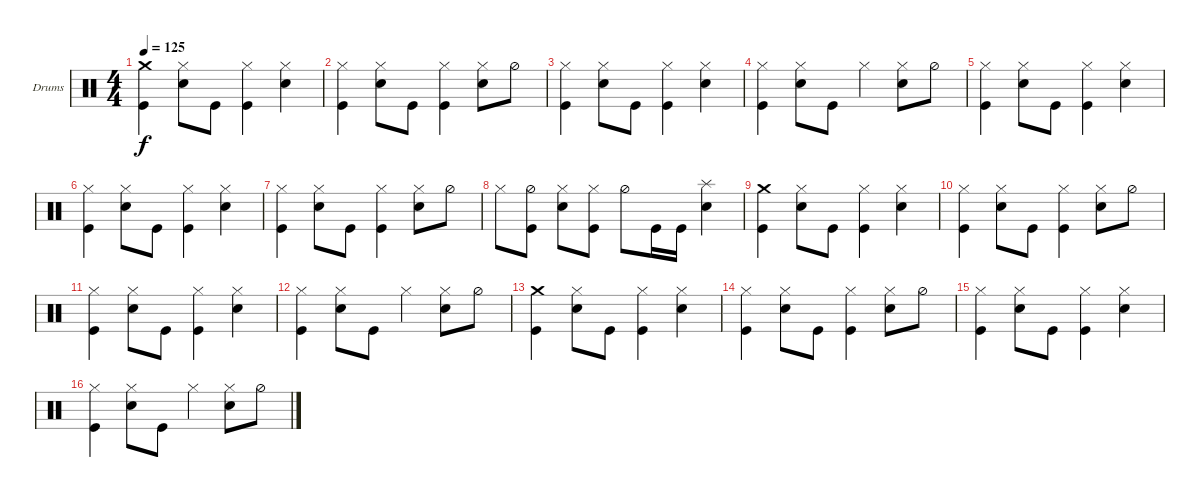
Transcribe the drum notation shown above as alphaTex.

\bracketExtendMode groupsimilarinstruments
\firstSystemTrackNameOrientation horizontal
\otherSystemsTrackNameOrientation horizontal
\track ("Drumkit" "Drums") {instrument percussion}
\staff {score}
\articulation defaults
\ts (4 4)
\tempo 125
\clef neutral
\ks c
("Kick (hit)" "Crash medium (hit)").4{dy f} ("Snare (hit) 2" "Hi-Hat (closed)").8 "Kick (hit)".8 ("Hi-Hat (closed)" "Kick (hit)").4 ("Hi-Hat (closed)" "Snare (hit) 2").4 |
("Kick (hit)" "Hi-Hat (closed)").4 ("Snare (hit) 2" "Hi-Hat (closed)").8 "Kick (hit)".8 ("Hi-Hat (closed)" "Kick (hit)").4 ("Hi-Hat (closed)" "Snare (hit) 2").8 "Hi-Hat (half)".8 |
("Kick (hit)" "Hi-Hat (closed)").4 ("Snare (hit) 2" "Hi-Hat (closed)").8 "Kick (hit)".8 ("Hi-Hat (closed)" "Kick (hit)").4 ("Hi-Hat (closed)" "Snare (hit) 2").4 |
("Kick (hit)" "Hi-Hat (closed)").4 ("Snare (hit) 2" "Hi-Hat (closed)").8 "Kick (hit)".8 "Hi-Hat (closed)".4 ("Hi-Hat (closed)" "Snare (hit) 2").8 "Hi-Hat (half)".8 |
("Kick (hit)" "Hi-Hat (closed)").4 ("Snare (hit) 2" "Hi-Hat (closed)").8 "Kick (hit)".8 ("Hi-Hat (closed)" "Kick (hit)").4 ("Hi-Hat (closed)" "Snare (hit) 2").4 |
("Kick (hit)" "Hi-Hat (closed)").4 ("Snare (hit) 2" "Hi-Hat (closed)").8 "Kick (hit)".8 ("Hi-Hat (closed)" "Kick (hit)").4 ("Hi-Hat (closed)" "Snare (hit) 2").4 |
("Kick (hit)" "Hi-Hat (closed)").4 ("Snare (hit) 2" "Hi-Hat (closed)").8 "Kick (hit)".8 ("Hi-Hat (closed)" "Kick (hit)").4 ("Hi-Hat (closed)" "Snare (hit) 2").8 "Hi-Hat (half)".8 |
"Hi-Hat (closed)".8 ("Hi-Hat (half)" "Kick (hit)").8 ("Hi-Hat (closed)" "Snare (hit) 2").8 ("Hi-Hat (closed)" "Kick (hit)").8 "Hi-Hat (half)".8 "Kick (hit)".16 "Kick (hit)".16 ("Snare (hit) 2" "Splash (hit)").4 |
("Kick (hit)" "Crash medium (hit)").4 ("Snare (hit) 2" "Hi-Hat (closed)").8 "Kick (hit)".8 ("Hi-Hat (closed)" "Kick (hit)").4 ("Hi-Hat (closed)" "Snare (hit) 2").4 |
("Kick (hit)" "Hi-Hat (closed)").4 ("Snare (hit) 2" "Hi-Hat (closed)").8 "Kick (hit)".8 ("Hi-Hat (closed)" "Kick (hit)").4 ("Hi-Hat (closed)" "Snare (hit) 2").8 "Hi-Hat (half)".8 |
("Kick (hit)" "Hi-Hat (closed)").4 ("Snare (hit) 2" "Hi-Hat (closed)").8 "Kick (hit)".8 ("Hi-Hat (closed)" "Kick (hit)").4 ("Hi-Hat (closed)" "Snare (hit) 2").4 |
("Kick (hit)" "Hi-Hat (closed)").4 ("Snare (hit) 2" "Hi-Hat (closed)").8 "Kick (hit)".8 "Hi-Hat (closed)".4 ("Hi-Hat (closed)" "Snare (hit) 2").8 "Hi-Hat (half)".8 |
("Kick (hit)" "Crash medium (hit)").4 ("Snare (hit) 2" "Hi-Hat (closed)").8 "Kick (hit)".8 ("Hi-Hat (closed)" "Kick (hit)").4 ("Hi-Hat (closed)" "Snare (hit) 2").4 |
("Kick (hit)" "Hi-Hat (closed)").4 ("Snare (hit) 2" "Hi-Hat (closed)").8 "Kick (hit)".8 ("Hi-Hat (closed)" "Kick (hit)").4 ("Hi-Hat (closed)" "Snare (hit) 2").8 "Hi-Hat (half)".8 |
("Kick (hit)" "Hi-Hat (closed)").4 ("Snare (hit) 2" "Hi-Hat (closed)").8 "Kick (hit)".8 ("Hi-Hat (closed)" "Kick (hit)").4 ("Hi-Hat (closed)" "Snare (hit) 2").4 |
("Kick (hit)" "Hi-Hat (closed)").4 ("Snare (hit) 2" "Hi-Hat (closed)").8 "Kick (hit)".8 "Hi-Hat (closed)".4 ("Hi-Hat (closed)" "Snare (hit) 2").8 "Hi-Hat (half)".8
